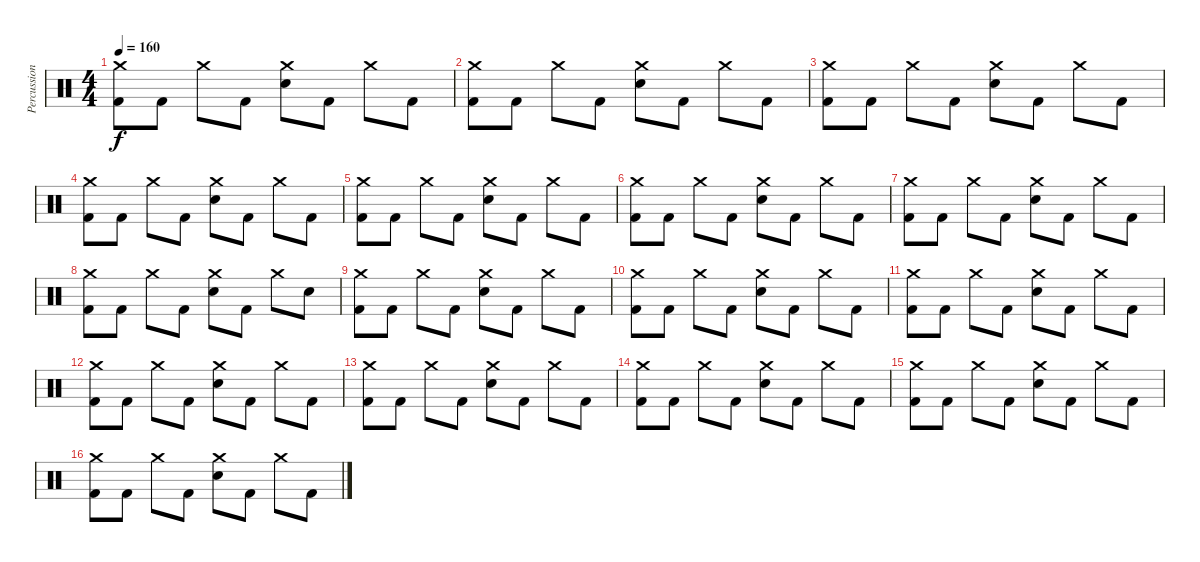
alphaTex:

\track ("Percussion" "Percussion") {instrument percussion}
\staff {score}
\articulation defaults
\ts (4 4)
\tempo 160
\clef neutral
\ks c
("Crash medium (hit)" "Kick (hit) 2").8{dy f} "Kick (hit) 2".8 "Crash medium (hit)".8 "Kick (hit) 2".8 ("Crash medium (hit)" "Electric Snare (hit)").8 "Kick (hit) 2".8 "Crash medium (hit)".8 "Kick (hit) 2".8 |
("Crash medium (hit)" "Kick (hit) 2").8 "Kick (hit) 2".8 "Crash medium (hit)".8 "Kick (hit) 2".8 ("Crash medium (hit)" "Electric Snare (hit)").8 "Kick (hit) 2".8 "Crash medium (hit)".8 "Kick (hit) 2".8 |
("Crash medium (hit)" "Kick (hit) 2").8 "Kick (hit) 2".8 "Crash medium (hit)".8 "Kick (hit) 2".8 ("Crash medium (hit)" "Electric Snare (hit)").8 "Kick (hit) 2".8 "Crash medium (hit)".8 "Kick (hit) 2".8 |
("Crash medium (hit)" "Kick (hit) 2").8 "Kick (hit) 2".8 "Crash medium (hit)".8 "Kick (hit) 2".8 ("Crash medium (hit)" "Electric Snare (hit)").8 "Kick (hit) 2".8 "Crash medium (hit)".8 "Kick (hit) 2".8 |
("Crash medium (hit)" "Kick (hit) 2").8 "Kick (hit) 2".8 "Crash medium (hit)".8 "Kick (hit) 2".8 ("Crash medium (hit)" "Electric Snare (hit)").8 "Kick (hit) 2".8 "Crash medium (hit)".8 "Kick (hit) 2".8 |
("Crash medium (hit)" "Kick (hit) 2").8 "Kick (hit) 2".8 "Crash medium (hit)".8 "Kick (hit) 2".8 ("Crash medium (hit)" "Electric Snare (hit)").8 "Kick (hit) 2".8 "Crash medium (hit)".8 "Kick (hit) 2".8 |
("Crash medium (hit)" "Kick (hit) 2").8 "Kick (hit) 2".8 "Crash medium (hit)".8 "Kick (hit) 2".8 ("Crash medium (hit)" "Electric Snare (hit)").8 "Kick (hit) 2".8 "Crash medium (hit)".8 "Kick (hit) 2".8 |
("Crash medium (hit)" "Kick (hit) 2").8 "Kick (hit) 2".8 "Crash medium (hit)".8 "Kick (hit) 2".8 ("Crash medium (hit)" "Electric Snare (hit)").8 "Kick (hit) 2".8 "Crash medium (hit)".8 "Electric Snare (hit)".8 |
("Crash medium (hit)" "Kick (hit) 2").8 "Kick (hit) 2".8 "Crash medium (hit)".8 "Kick (hit) 2".8 ("Crash medium (hit)" "Electric Snare (hit)").8 "Kick (hit) 2".8 "Crash medium (hit)".8 "Kick (hit) 2".8 |
("Crash medium (hit)" "Kick (hit) 2").8 "Kick (hit) 2".8 "Crash medium (hit)".8 "Kick (hit) 2".8 ("Crash medium (hit)" "Electric Snare (hit)").8 "Kick (hit) 2".8 "Crash medium (hit)".8 "Kick (hit) 2".8 |
("Crash medium (hit)" "Kick (hit) 2").8 "Kick (hit) 2".8 "Crash medium (hit)".8 "Kick (hit) 2".8 ("Crash medium (hit)" "Electric Snare (hit)").8 "Kick (hit) 2".8 "Crash medium (hit)".8 "Kick (hit) 2".8 |
("Crash medium (hit)" "Kick (hit) 2").8 "Kick (hit) 2".8 "Crash medium (hit)".8 "Kick (hit) 2".8 ("Crash medium (hit)" "Electric Snare (hit)").8 "Kick (hit) 2".8 "Crash medium (hit)".8 "Kick (hit) 2".8 |
("Crash medium (hit)" "Kick (hit) 2").8 "Kick (hit) 2".8 "Crash medium (hit)".8 "Kick (hit) 2".8 ("Crash medium (hit)" "Electric Snare (hit)").8 "Kick (hit) 2".8 "Crash medium (hit)".8 "Kick (hit) 2".8 |
("Crash medium (hit)" "Kick (hit) 2").8 "Kick (hit) 2".8 "Crash medium (hit)".8 "Kick (hit) 2".8 ("Crash medium (hit)" "Electric Snare (hit)").8 "Kick (hit) 2".8 "Crash medium (hit)".8 "Kick (hit) 2".8 |
("Crash medium (hit)" "Kick (hit) 2").8 "Kick (hit) 2".8 "Crash medium (hit)".8 "Kick (hit) 2".8 ("Crash medium (hit)" "Electric Snare (hit)").8 "Kick (hit) 2".8 "Crash medium (hit)".8 "Kick (hit) 2".8 |
("Crash medium (hit)" "Kick (hit) 2").8 "Kick (hit) 2".8 "Crash medium (hit)".8 "Kick (hit) 2".8 ("Crash medium (hit)" "Electric Snare (hit)").8 "Kick (hit) 2".8 "Crash medium (hit)".8 "Kick (hit) 2".8
